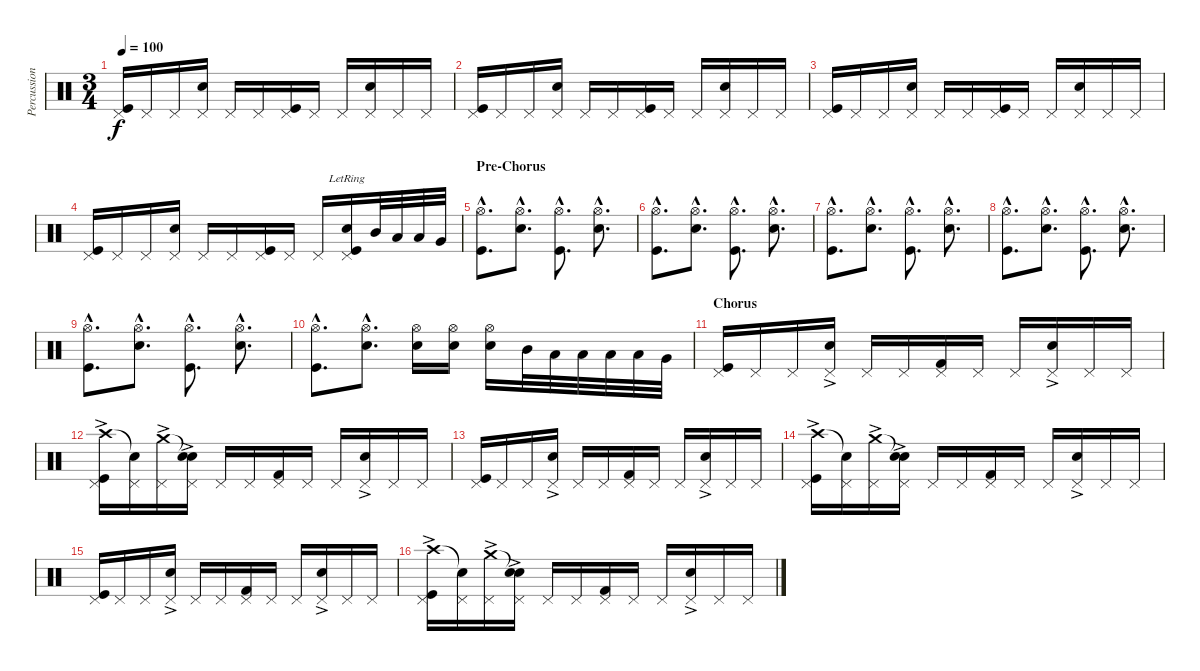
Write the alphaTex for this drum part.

\track ("Percussion" "Percussion") {instrument percussion}
\staff {score}
\articulation defaults
\ts (3 4)
\tempo 100
\clef neutral
\ks c
("Pedal Hi-Hat (hit)" "Kick (hit)").16{dy f} "Pedal Hi-Hat (hit)".16 "Pedal Hi-Hat (hit)".16 ("Pedal Hi-Hat (hit)" "Snare (hit) 2").16 "Pedal Hi-Hat (hit)".16 "Pedal Hi-Hat (hit)".16 ("Pedal Hi-Hat (hit)" "Kick (hit)").16 "Pedal Hi-Hat (hit)".16 "Pedal Hi-Hat (hit)".16 ("Pedal Hi-Hat (hit)" "Snare (hit) 2").16 "Pedal Hi-Hat (hit)".16 "Pedal Hi-Hat (hit)".16 |
("Pedal Hi-Hat (hit)" "Kick (hit)").16 "Pedal Hi-Hat (hit)".16 "Pedal Hi-Hat (hit)".16 ("Pedal Hi-Hat (hit)" "Snare (hit) 2").16 "Pedal Hi-Hat (hit)".16 "Pedal Hi-Hat (hit)".16 ("Pedal Hi-Hat (hit)" "Kick (hit)").16 "Pedal Hi-Hat (hit)".16 "Pedal Hi-Hat (hit)".16 ("Pedal Hi-Hat (hit)" "Snare (hit) 2").16 "Pedal Hi-Hat (hit)".16 "Pedal Hi-Hat (hit)".16 |
("Pedal Hi-Hat (hit)" "Kick (hit)").16 "Pedal Hi-Hat (hit)".16 "Pedal Hi-Hat (hit)".16 ("Pedal Hi-Hat (hit)" "Snare (hit) 2").16 "Pedal Hi-Hat (hit)".16 "Pedal Hi-Hat (hit)".16 ("Pedal Hi-Hat (hit)" "Kick (hit)").16 "Pedal Hi-Hat (hit)".16 "Pedal Hi-Hat (hit)".16 ("Pedal Hi-Hat (hit)" "Snare (hit) 2").16 "Pedal Hi-Hat (hit)".16 "Pedal Hi-Hat (hit)".16 |
("Pedal Hi-Hat (hit)" "Kick (hit)").16 "Pedal Hi-Hat (hit)".16 "Pedal Hi-Hat (hit)".16 ("Pedal Hi-Hat (hit)" "Snare (hit) 2").16 "Pedal Hi-Hat (hit)".16 "Pedal Hi-Hat (hit)".16 ("Pedal Hi-Hat (hit)" "Kick (hit)").16 "Pedal Hi-Hat (hit)".16 "Pedal Hi-Hat (hit)".16 ("Pedal Hi-Hat (hit)" "Snare (hit) 2"{lr} "Kick (hit)").16 "Mid Tom (hit)".32 "Low Tom (hit)".32 "Low Tom (hit)".32 "Very Low Tom (hit)".32 |
\section ("" "Pre-Chorus")
("Hi-Hat (open)"{hac} "Kick (hit)"{hac}).8{d} ("Hi-Hat (open)"{hac} "Snare (hit) 2"{hac}).8{d} ("Hi-Hat (open)"{hac} "Kick (hit)"{hac}).8{d} ("Hi-Hat (open)"{hac} "Snare (hit) 2"{hac}).8{d} |
("Hi-Hat (open)"{hac} "Kick (hit)"{hac}).8{d} ("Hi-Hat (open)"{hac} "Snare (hit) 2"{hac}).8{d} ("Hi-Hat (open)"{hac} "Kick (hit)"{hac}).8{d} ("Hi-Hat (open)"{hac} "Snare (hit) 2"{hac}).8{d} |
("Hi-Hat (open)"{hac} "Kick (hit)"{hac}).8{d} ("Hi-Hat (open)"{hac} "Snare (hit) 2"{hac}).8{d} ("Hi-Hat (open)"{hac} "Kick (hit)"{hac}).8{d} ("Hi-Hat (open)"{hac} "Snare (hit) 2"{hac}).8{d} |
("Hi-Hat (open)"{hac} "Kick (hit)"{hac}).8{d} ("Hi-Hat (open)"{hac} "Snare (hit) 2"{hac}).8{d} ("Hi-Hat (open)"{hac} "Kick (hit)"{hac}).8{d} ("Hi-Hat (open)"{hac} "Snare (hit) 2"{hac}).8{d} |
("Hi-Hat (open)"{hac} "Kick (hit)"{hac}).8{d} ("Hi-Hat (open)"{hac} "Snare (hit) 2"{hac}).8{d} ("Hi-Hat (open)"{hac} "Kick (hit)"{hac}).8{d} ("Hi-Hat (open)"{hac} "Snare (hit) 2"{hac}).8{d} |
("Hi-Hat (open)"{hac} "Kick (hit)"{hac}).8{d} ("Hi-Hat (open)"{hac} "Snare (hit) 2"{hac}).8{d} ("Hi-Hat (open)" "Snare (hit) 2").16 ("Hi-Hat (open)" "Snare (hit) 2").16 ("Hi-Hat (open)" "Snare (hit) 2").16 "Mid Tom (hit)".32 "Low Tom (hit)".32 "Low Tom (hit)".32 "Low Tom (hit)".32 "Low Tom (hit)".32 "Very Low Tom (hit)".32 |
\section ("" "Chorus")
("Pedal Hi-Hat (hit)" "Kick (hit)").16 "Pedal Hi-Hat (hit)".16 "Pedal Hi-Hat (hit)".16 ("Pedal Hi-Hat (hit)" "Hand Clap (hit)"{ac}).16 "Pedal Hi-Hat (hit)".16 "Pedal Hi-Hat (hit)".16 ("Pedal Hi-Hat (hit)" "Kick (hit) 2").16 "Pedal Hi-Hat (hit)".16 "Pedal Hi-Hat (hit)".16 ("Pedal Hi-Hat (hit)" "Hand Clap (hit)"{ac}).16 "Pedal Hi-Hat (hit)".16 "Pedal Hi-Hat (hit)".16 |
("Pedal Hi-Hat (hit)" "Crash high (hit)"{ac} "Kick (hit)").16 ("Pedal Hi-Hat (hit)" "Snare (hit)"{t}).16 ("Pedal Hi-Hat (hit)" "Crash medium (hit)"{ac}).16 ("Pedal Hi-Hat (hit)" "Snare (hit)"{t} "Hand Clap (hit)"{ac}).16 "Pedal Hi-Hat (hit)".16 "Pedal Hi-Hat (hit)".16 ("Pedal Hi-Hat (hit)" "Kick (hit) 2").16 "Pedal Hi-Hat (hit)".16 "Pedal Hi-Hat (hit)".16 ("Pedal Hi-Hat (hit)" "Hand Clap (hit)"{ac}).16 "Pedal Hi-Hat (hit)".16 "Pedal Hi-Hat (hit)".16 |
("Pedal Hi-Hat (hit)" "Kick (hit)").16 "Pedal Hi-Hat (hit)".16 "Pedal Hi-Hat (hit)".16 ("Pedal Hi-Hat (hit)" "Hand Clap (hit)"{ac}).16 "Pedal Hi-Hat (hit)".16 "Pedal Hi-Hat (hit)".16 ("Pedal Hi-Hat (hit)" "Kick (hit) 2").16 "Pedal Hi-Hat (hit)".16 "Pedal Hi-Hat (hit)".16 ("Pedal Hi-Hat (hit)" "Hand Clap (hit)"{ac}).16 "Pedal Hi-Hat (hit)".16 "Pedal Hi-Hat (hit)".16 |
("Pedal Hi-Hat (hit)" "Crash high (hit)"{ac} "Kick (hit)").16 ("Pedal Hi-Hat (hit)" "Snare (hit)"{t}).16 ("Pedal Hi-Hat (hit)" "Crash medium (hit)"{ac}).16 ("Pedal Hi-Hat (hit)" "Snare (hit)"{t} "Hand Clap (hit)"{ac}).16 "Pedal Hi-Hat (hit)".16 "Pedal Hi-Hat (hit)".16 ("Pedal Hi-Hat (hit)" "Kick (hit) 2").16 "Pedal Hi-Hat (hit)".16 "Pedal Hi-Hat (hit)".16 ("Pedal Hi-Hat (hit)" "Hand Clap (hit)"{ac}).16 "Pedal Hi-Hat (hit)".16 "Pedal Hi-Hat (hit)".16 |
("Pedal Hi-Hat (hit)" "Kick (hit)").16 "Pedal Hi-Hat (hit)".16 "Pedal Hi-Hat (hit)".16 ("Pedal Hi-Hat (hit)" "Hand Clap (hit)"{ac}).16 "Pedal Hi-Hat (hit)".16 "Pedal Hi-Hat (hit)".16 ("Pedal Hi-Hat (hit)" "Kick (hit) 2").16 "Pedal Hi-Hat (hit)".16 "Pedal Hi-Hat (hit)".16 ("Pedal Hi-Hat (hit)" "Hand Clap (hit)"{ac}).16 "Pedal Hi-Hat (hit)".16 "Pedal Hi-Hat (hit)".16 |
("Pedal Hi-Hat (hit)" "Crash high (hit)"{ac} "Kick (hit)").16 ("Pedal Hi-Hat (hit)" "Snare (hit)"{t}).16 ("Pedal Hi-Hat (hit)" "Crash medium (hit)"{ac}).16 ("Pedal Hi-Hat (hit)" "Snare (hit)"{t} "Hand Clap (hit)"{ac}).16 "Pedal Hi-Hat (hit)".16 "Pedal Hi-Hat (hit)".16 ("Pedal Hi-Hat (hit)" "Kick (hit) 2").16 "Pedal Hi-Hat (hit)".16 "Pedal Hi-Hat (hit)".16 ("Pedal Hi-Hat (hit)" "Hand Clap (hit)"{ac}).16 "Pedal Hi-Hat (hit)".16 "Pedal Hi-Hat (hit)".16
